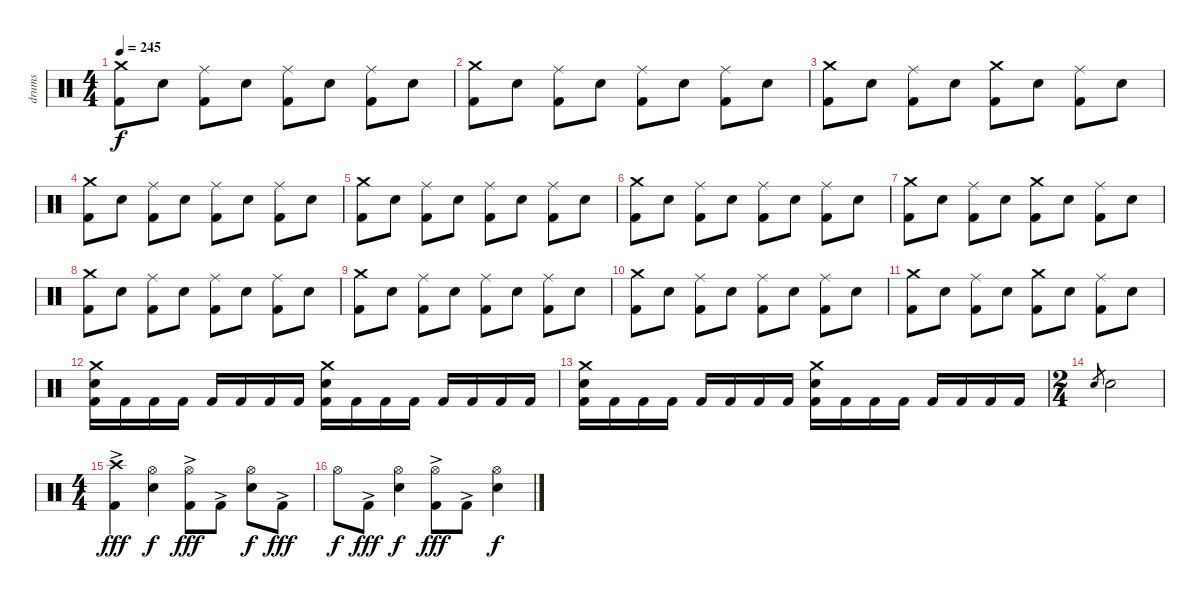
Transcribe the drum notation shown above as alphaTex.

\track ("drums" "drums") {instrument percussion}
\staff {score}
\articulation defaults
\ts (4 4)
\tempo 245
\clef neutral
\ks c
("Crash medium (hit)" "Kick (hit) 2").8{dy f} "Electric Snare (hit)".8 ("Ride (middle)" "Kick (hit) 2").8 "Electric Snare (hit)".8 ("Ride (middle)" "Kick (hit) 2").8 "Electric Snare (hit)".8 ("Ride (middle)" "Kick (hit) 2").8 "Electric Snare (hit)".8 |
("Crash medium (hit)" "Kick (hit) 2").8 "Electric Snare (hit)".8 ("Ride (middle)" "Kick (hit) 2").8 "Electric Snare (hit)".8 ("Ride (middle)" "Kick (hit) 2").8 "Electric Snare (hit)".8 ("Ride (middle)" "Kick (hit) 2").8 "Electric Snare (hit)".8 |
("Crash medium (hit)" "Kick (hit) 2").8 "Electric Snare (hit)".8 ("Ride (middle)" "Kick (hit) 2").8 "Electric Snare (hit)".8 ("Crash medium (hit)" "Kick (hit) 2").8 "Electric Snare (hit)".8 ("Ride (middle)" "Kick (hit) 2").8 "Electric Snare (hit)".8 |
("Crash medium (hit)" "Kick (hit) 2").8 "Electric Snare (hit)".8 ("Ride (middle)" "Kick (hit) 2").8 "Electric Snare (hit)".8 ("Ride (middle)" "Kick (hit) 2").8 "Electric Snare (hit)".8 ("Ride (middle)" "Kick (hit) 2").8 "Electric Snare (hit)".8 |
("Crash medium (hit)" "Kick (hit) 2").8 "Electric Snare (hit)".8 ("Ride (middle)" "Kick (hit) 2").8 "Electric Snare (hit)".8 ("Ride (middle)" "Kick (hit) 2").8 "Electric Snare (hit)".8 ("Ride (middle)" "Kick (hit) 2").8 "Electric Snare (hit)".8 |
("Crash medium (hit)" "Kick (hit) 2").8 "Electric Snare (hit)".8 ("Ride (middle)" "Kick (hit) 2").8 "Electric Snare (hit)".8 ("Ride (middle)" "Kick (hit) 2").8 "Electric Snare (hit)".8 ("Ride (middle)" "Kick (hit) 2").8 "Electric Snare (hit)".8 |
("Crash medium (hit)" "Kick (hit) 2").8 "Electric Snare (hit)".8 ("Ride (middle)" "Kick (hit) 2").8 "Electric Snare (hit)".8 ("Crash medium (hit)" "Kick (hit) 2").8 "Electric Snare (hit)".8 ("Ride (middle)" "Kick (hit) 2").8 "Electric Snare (hit)".8 |
("Crash medium (hit)" "Kick (hit) 2").8 "Electric Snare (hit)".8 ("Ride (middle)" "Kick (hit) 2").8 "Electric Snare (hit)".8 ("Ride (middle)" "Kick (hit) 2").8 "Electric Snare (hit)".8 ("Ride (middle)" "Kick (hit) 2").8 "Electric Snare (hit)".8 |
("Crash medium (hit)" "Kick (hit) 2").8 "Electric Snare (hit)".8 ("Ride (middle)" "Kick (hit) 2").8 "Electric Snare (hit)".8 ("Ride (middle)" "Kick (hit) 2").8 "Electric Snare (hit)".8 ("Ride (middle)" "Kick (hit) 2").8 "Electric Snare (hit)".8 |
("Crash medium (hit)" "Kick (hit) 2").8 "Electric Snare (hit)".8 ("Ride (middle)" "Kick (hit) 2").8 "Electric Snare (hit)".8 ("Ride (middle)" "Kick (hit) 2").8 "Electric Snare (hit)".8 ("Ride (middle)" "Kick (hit) 2").8 "Electric Snare (hit)".8 |
("Crash medium (hit)" "Kick (hit) 2").8 "Electric Snare (hit)".8 ("Ride (middle)" "Kick (hit) 2").8 "Electric Snare (hit)".8 ("Crash medium (hit)" "Kick (hit) 2").8 "Electric Snare (hit)".8 ("Ride (middle)" "Kick (hit) 2").8 "Electric Snare (hit)".8 |
("Crash medium (hit)" "Electric Snare (hit)" "Kick (hit) 2").16 "Kick (hit) 2".16 "Kick (hit) 2".16 "Kick (hit) 2".16 "Kick (hit) 2".16 "Kick (hit) 2".16 "Kick (hit) 2".16 "Kick (hit) 2".16 ("Crash medium (hit)" "Electric Snare (hit)" "Kick (hit) 2").16 "Kick (hit) 2".16 "Kick (hit) 2".16 "Kick (hit) 2".16 "Kick (hit) 2".16 "Kick (hit) 2".16 "Kick (hit) 2".16 "Kick (hit) 2".16 |
("Crash medium (hit)" "Electric Snare (hit)" "Kick (hit) 2").16 "Kick (hit) 2".16 "Kick (hit) 2".16 "Kick (hit) 2".16 "Kick (hit) 2".16 "Kick (hit) 2".16 "Kick (hit) 2".16 "Kick (hit) 2".16 ("Crash medium (hit)" "Electric Snare (hit)" "Kick (hit) 2").16 "Kick (hit) 2".16 "Kick (hit) 2".16 "Kick (hit) 2".16 "Kick (hit) 2".16 "Kick (hit) 2".16 "Kick (hit) 2".16 "Kick (hit) 2".16 |
\ts (2 4)
"Electric Snare (hit)".8{gr} "Electric Snare (hit)".2 |
\ts (4 4)
("Crash high (hit)" "Kick (hit) 2"{ac}).4{dy fff} ("Hi-Hat (open)" "Electric Snare (hit)").4{dy f} ("Hi-Hat (open)" "Kick (hit) 2"{ac}).8{dy fff} "Kick (hit) 2"{ac}.8 ("Hi-Hat (open)" "Electric Snare (hit)").8{dy f} "Kick (hit) 2"{ac}.8{dy fff} |
"Hi-Hat (open)".8{dy f} "Kick (hit) 2"{ac}.8{dy fff} ("Hi-Hat (open)" "Electric Snare (hit)").4{dy f} ("Hi-Hat (open)" "Kick (hit) 2"{ac}).8{dy fff} "Kick (hit) 2"{ac}.8 ("Hi-Hat (open)" "Electric Snare (hit)").4{dy f}
